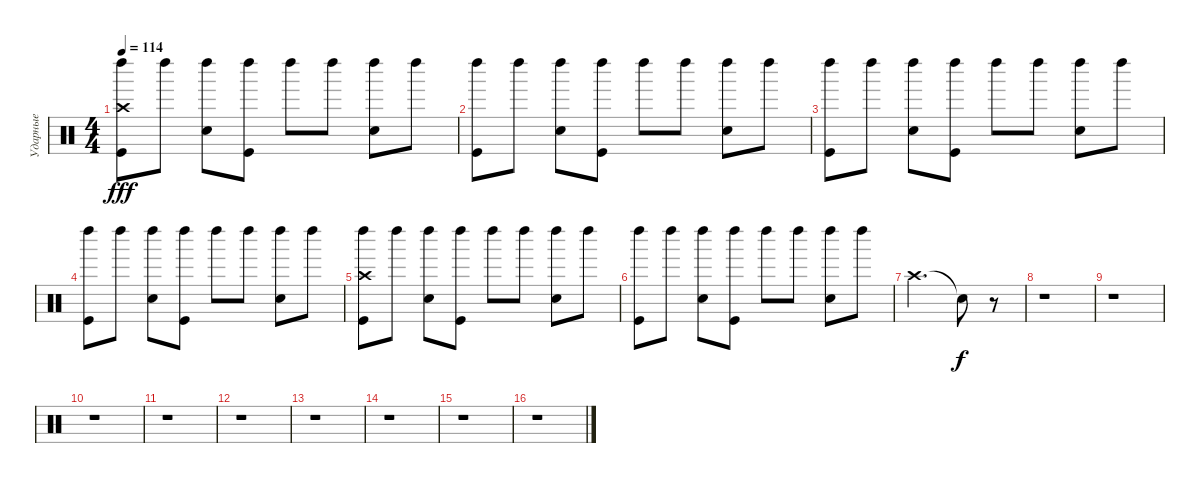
\track ("Ударные" "Ударные") {instrument percussion}
\staff {score}
\articulation defaults
\ts (4 4)
\tempo 114
\clef neutral
\ks c
("Kick (hit)" "Crash high (hit)" "Left Maraca (hit)").8{dy fff} "Left Maraca (hit)".8 ("Snare (hit) 2" "Left Maraca (hit)").8 ("Kick (hit)" "Left Maraca (hit)").8 "Left Maraca (hit)".8 "Left Maraca (hit)".8 ("Snare (hit) 2" "Left Maraca (hit)").8 "Left Maraca (hit)".8 |
("Kick (hit)" "Left Maraca (hit)").8 "Left Maraca (hit)".8 ("Snare (hit) 2" "Left Maraca (hit)").8 ("Kick (hit)" "Left Maraca (hit)").8 "Left Maraca (hit)".8 "Left Maraca (hit)".8 ("Snare (hit) 2" "Left Maraca (hit)").8 "Left Maraca (hit)".8 |
("Kick (hit)" "Left Maraca (hit)").8 "Left Maraca (hit)".8 ("Snare (hit) 2" "Left Maraca (hit)").8 ("Kick (hit)" "Left Maraca (hit)").8 "Left Maraca (hit)".8 "Left Maraca (hit)".8 ("Snare (hit) 2" "Left Maraca (hit)").8 "Left Maraca (hit)".8 |
("Kick (hit)" "Left Maraca (hit)").8 "Left Maraca (hit)".8 ("Snare (hit) 2" "Left Maraca (hit)").8 ("Kick (hit)" "Left Maraca (hit)").8 "Left Maraca (hit)".8 "Left Maraca (hit)".8 ("Snare (hit) 2" "Left Maraca (hit)").8 "Left Maraca (hit)".8 |
("Kick (hit)" "Crash high (hit)" "Left Maraca (hit)").8 "Left Maraca (hit)".8 ("Snare (hit) 2" "Left Maraca (hit)").8 ("Kick (hit)" "Left Maraca (hit)").8 "Left Maraca (hit)".8 "Left Maraca (hit)".8 ("Snare (hit) 2" "Left Maraca (hit)").8 "Left Maraca (hit)".8 |
("Kick (hit)" "Left Maraca (hit)").8 "Left Maraca (hit)".8 ("Snare (hit) 2" "Left Maraca (hit)").8 ("Kick (hit)" "Left Maraca (hit)").8 "Left Maraca (hit)".8 "Left Maraca (hit)".8 ("Snare (hit) 2" "Left Maraca (hit)").8 "Left Maraca (hit)".8 |
"Crash high (hit)".2{d} "Snare (hit)"{t}.8{dy f} r.8 |
r.1 |
r.1 |
r.1 |
r.1 |
r.1 |
r.1 |
r.1 |
r.1 |
r.1
